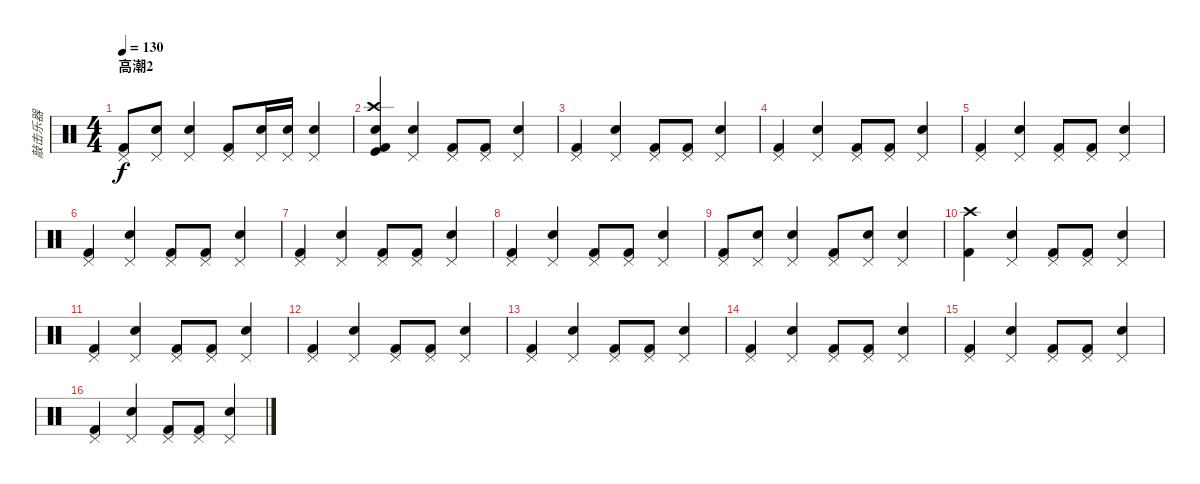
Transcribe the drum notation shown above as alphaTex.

\track ("敲击乐器" "敲击乐器") {instrument percussion}
\staff {score}
\articulation defaults
\ts (4 4)
\section ("" "高潮2")
\tempo 130
\clef neutral
\ks c
("Kick (hit) 2" "Pedal Hi-Hat (hit)").8{dy f} ("Snare (hit) 2" "Pedal Hi-Hat (hit)").8 ("Snare (hit) 2" "Pedal Hi-Hat (hit)").4 ("Kick (hit) 2" "Pedal Hi-Hat (hit)").8 ("Snare (hit) 2" "Pedal Hi-Hat (hit)").16 ("Snare (hit) 2" "Pedal Hi-Hat (hit)").16 ("Snare (hit) 2" "Pedal Hi-Hat (hit)").4 |
("Kick (hit) 2" "Crash high (hit)" "Kick (hit)" "Metronome (bell)").4 ("Snare (hit) 2" "Pedal Hi-Hat (hit)").4 ("Kick (hit) 2" "Pedal Hi-Hat (hit)").8 ("Kick (hit) 2" "Pedal Hi-Hat (hit)").8 ("Snare (hit) 2" "Pedal Hi-Hat (hit)").4 |
("Kick (hit) 2" "Pedal Hi-Hat (hit)").4 ("Snare (hit) 2" "Pedal Hi-Hat (hit)").4 ("Kick (hit) 2" "Pedal Hi-Hat (hit)").8 ("Kick (hit) 2" "Pedal Hi-Hat (hit)").8 ("Snare (hit) 2" "Pedal Hi-Hat (hit)").4 |
("Kick (hit) 2" "Pedal Hi-Hat (hit)").4 ("Snare (hit) 2" "Pedal Hi-Hat (hit)").4 ("Kick (hit) 2" "Pedal Hi-Hat (hit)").8 ("Kick (hit) 2" "Pedal Hi-Hat (hit)").8 ("Snare (hit) 2" "Pedal Hi-Hat (hit)").4 |
("Kick (hit) 2" "Pedal Hi-Hat (hit)").4 ("Snare (hit) 2" "Pedal Hi-Hat (hit)").4 ("Kick (hit) 2" "Pedal Hi-Hat (hit)").8 ("Kick (hit) 2" "Pedal Hi-Hat (hit)").8 ("Snare (hit) 2" "Pedal Hi-Hat (hit)").4 |
("Kick (hit) 2" "Pedal Hi-Hat (hit)").4 ("Snare (hit) 2" "Pedal Hi-Hat (hit)").4 ("Kick (hit) 2" "Pedal Hi-Hat (hit)").8 ("Kick (hit) 2" "Pedal Hi-Hat (hit)").8 ("Snare (hit) 2" "Pedal Hi-Hat (hit)").4 |
("Kick (hit) 2" "Pedal Hi-Hat (hit)").4 ("Snare (hit) 2" "Pedal Hi-Hat (hit)").4 ("Kick (hit) 2" "Pedal Hi-Hat (hit)").8 ("Kick (hit) 2" "Pedal Hi-Hat (hit)").8 ("Snare (hit) 2" "Pedal Hi-Hat (hit)").4 |
("Kick (hit) 2" "Pedal Hi-Hat (hit)").4 ("Snare (hit) 2" "Pedal Hi-Hat (hit)").4 ("Kick (hit) 2" "Pedal Hi-Hat (hit)").8 ("Kick (hit) 2" "Pedal Hi-Hat (hit)").8 ("Snare (hit) 2" "Pedal Hi-Hat (hit)").4 |
("Kick (hit) 2" "Pedal Hi-Hat (hit)").8 ("Snare (hit) 2" "Pedal Hi-Hat (hit)").8 ("Snare (hit) 2" "Pedal Hi-Hat (hit)").4 ("Kick (hit) 2" "Pedal Hi-Hat (hit)").8 ("Snare (hit) 2" "Pedal Hi-Hat (hit)").8 ("Snare (hit) 2" "Pedal Hi-Hat (hit)").4 |
("Kick (hit) 2" "Crash high (hit)").4 ("Snare (hit) 2" "Pedal Hi-Hat (hit)").4 ("Kick (hit) 2" "Pedal Hi-Hat (hit)").8 ("Kick (hit) 2" "Pedal Hi-Hat (hit)").8 ("Snare (hit) 2" "Pedal Hi-Hat (hit)").4 |
("Kick (hit) 2" "Pedal Hi-Hat (hit)").4 ("Snare (hit) 2" "Pedal Hi-Hat (hit)").4 ("Kick (hit) 2" "Pedal Hi-Hat (hit)").8 ("Kick (hit) 2" "Pedal Hi-Hat (hit)").8 ("Snare (hit) 2" "Pedal Hi-Hat (hit)").4 |
("Kick (hit) 2" "Pedal Hi-Hat (hit)").4 ("Snare (hit) 2" "Pedal Hi-Hat (hit)").4 ("Kick (hit) 2" "Pedal Hi-Hat (hit)").8 ("Kick (hit) 2" "Pedal Hi-Hat (hit)").8 ("Snare (hit) 2" "Pedal Hi-Hat (hit)").4 |
("Kick (hit) 2" "Pedal Hi-Hat (hit)").4 ("Snare (hit) 2" "Pedal Hi-Hat (hit)").4 ("Kick (hit) 2" "Pedal Hi-Hat (hit)").8 ("Kick (hit) 2" "Pedal Hi-Hat (hit)").8 ("Snare (hit) 2" "Pedal Hi-Hat (hit)").4 |
("Kick (hit) 2" "Pedal Hi-Hat (hit)").4 ("Snare (hit) 2" "Pedal Hi-Hat (hit)").4 ("Kick (hit) 2" "Pedal Hi-Hat (hit)").8 ("Kick (hit) 2" "Pedal Hi-Hat (hit)").8 ("Snare (hit) 2" "Pedal Hi-Hat (hit)").4 |
("Kick (hit) 2" "Pedal Hi-Hat (hit)").4 ("Snare (hit) 2" "Pedal Hi-Hat (hit)").4 ("Kick (hit) 2" "Pedal Hi-Hat (hit)").8 ("Kick (hit) 2" "Pedal Hi-Hat (hit)").8 ("Snare (hit) 2" "Pedal Hi-Hat (hit)").4 |
("Kick (hit) 2" "Pedal Hi-Hat (hit)").4 ("Snare (hit) 2" "Pedal Hi-Hat (hit)").4 ("Kick (hit) 2" "Pedal Hi-Hat (hit)").8 ("Kick (hit) 2" "Pedal Hi-Hat (hit)").8 ("Snare (hit) 2" "Pedal Hi-Hat (hit)").4
